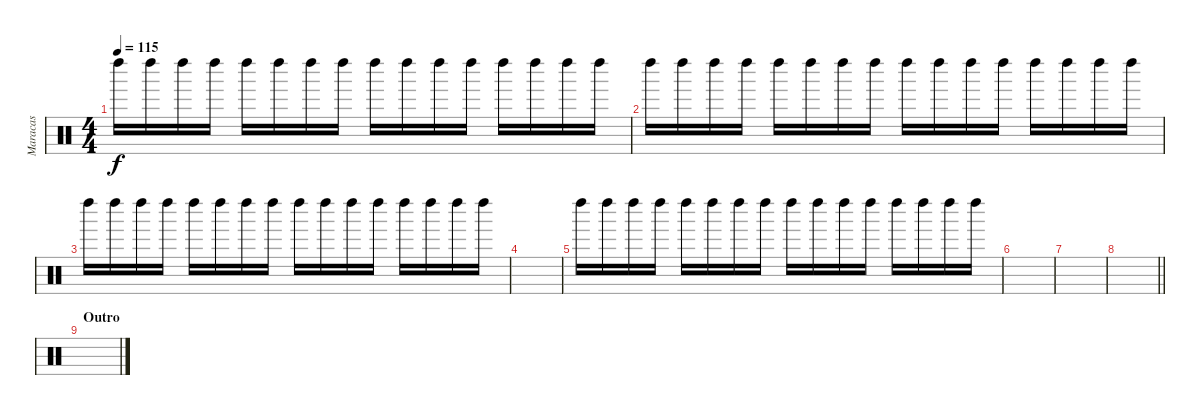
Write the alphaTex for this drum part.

\track ("Maracas" "Maracas") {instrument percussion}
\staff {score}
\articulation defaults
\ts (4 4)
\tempo 115
\clef neutral
\ks c "Left Maraca (hit)".16{dy f} "Left Maraca (hit)".16 "Left Maraca (hit)".16 "Left Maraca (hit)".16 "Left Maraca (hit)".16 "Left Maraca (hit)".16 "Left Maraca (hit)".16 "Left Maraca (hit)".16 "Left Maraca (hit)".16 "Left Maraca (hit)".16 "Left Maraca (hit)".16 "Left Maraca (hit)".16 "Left Maraca (hit)".16 "Left Maraca (hit)".16 "Left Maraca (hit)".16 "Left Maraca (hit)".16
|
"Left Maraca (hit)".16 "Left Maraca (hit)".16 "Left Maraca (hit)".16 "Left Maraca (hit)".16 "Left Maraca (hit)".16 "Left Maraca (hit)".16 "Left Maraca (hit)".16 "Left Maraca (hit)".16 "Left Maraca (hit)".16 "Left Maraca (hit)".16 "Left Maraca (hit)".16 "Left Maraca (hit)".16 "Left Maraca (hit)".16 "Left Maraca (hit)".16 "Left Maraca (hit)".16 "Left Maraca (hit)".16 |
"Left Maraca (hit)".16 "Left Maraca (hit)".16 "Left Maraca (hit)".16 "Left Maraca (hit)".16 "Left Maraca (hit)".16 "Left Maraca (hit)".16 "Left Maraca (hit)".16 "Left Maraca (hit)".16 "Left Maraca (hit)".16 "Left Maraca (hit)".16 "Left Maraca (hit)".16 "Left Maraca (hit)".16 "Left Maraca (hit)".16 "Left Maraca (hit)".16 "Left Maraca (hit)".16 "Left Maraca (hit)".16 |
|
"Left Maraca (hit)".16 "Left Maraca (hit)".16 "Left Maraca (hit)".16 "Left Maraca (hit)".16 "Left Maraca (hit)".16 "Left Maraca (hit)".16 "Left Maraca (hit)".16 "Left Maraca (hit)".16 "Left Maraca (hit)".16 "Left Maraca (hit)".16 "Left Maraca (hit)".16 "Left Maraca (hit)".16 "Left Maraca (hit)".16 "Left Maraca (hit)".16 "Left Maraca (hit)".16 "Left Maraca (hit)".16 |
|
|
\barLineRight lightlight
|
\section ("" "Outro")
